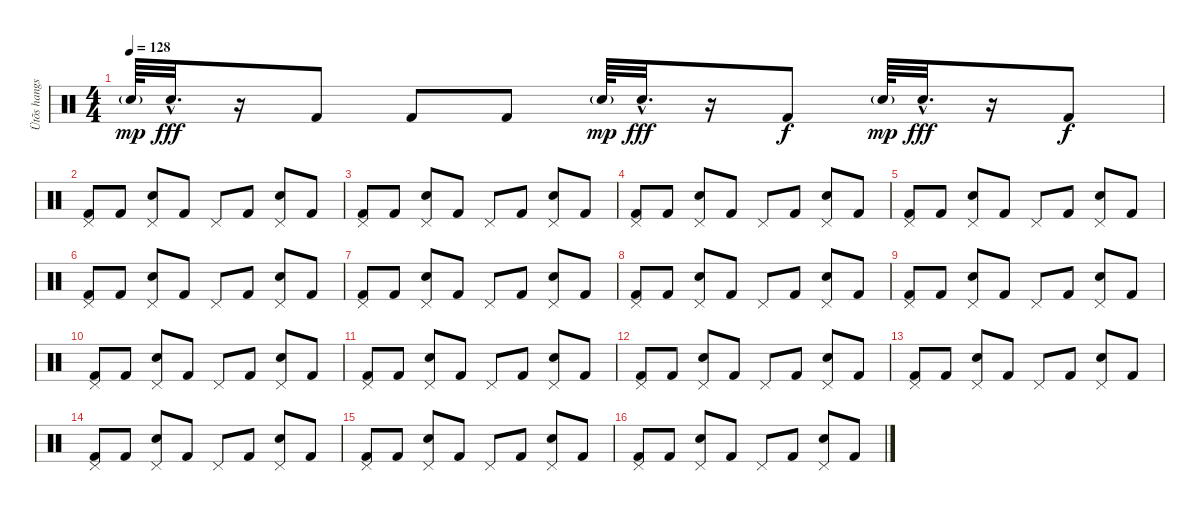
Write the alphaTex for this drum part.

\track ("Ütõs hangszer" "Ütõs hangs") {instrument percussion}
\staff {score}
\articulation defaults
\ts (4 4)
\tempo 128
\clef neutral
\ks c "Electric Snare (hit)"{g}.64{dy mp} "Electric Snare (hit)"{hac}.32{d dy fff}
r.16 "Kick (hit) 2".8 "Kick (hit) 2".8 "Kick (hit) 2".8 "Electric Snare (hit)"{g}.64{dy mp} "Electric Snare (hit)"{hac}.32{d dy fff} r.16 "Kick (hit) 2".8{dy f} "Electric Snare (hit)"{g}.64{dy mp} "Electric Snare (hit)"{hac}.32{d dy fff} r.16 "Kick (hit) 2".8{dy f} |
("Kick (hit) 2" "Pedal Hi-Hat (hit)").8 "Kick (hit) 2".8 ("Electric Snare (hit)" "Pedal Hi-Hat (hit)").8 "Kick (hit) 2".8 "Pedal Hi-Hat (hit)".8 "Kick (hit) 2".8 ("Electric Snare (hit)" "Pedal Hi-Hat (hit)").8 "Kick (hit) 2".8 |
("Kick (hit) 2" "Pedal Hi-Hat (hit)").8 "Kick (hit) 2".8 ("Electric Snare (hit)" "Pedal Hi-Hat (hit)").8 "Kick (hit) 2".8 "Pedal Hi-Hat (hit)".8 "Kick (hit) 2".8 ("Electric Snare (hit)" "Pedal Hi-Hat (hit)").8 "Kick (hit) 2".8 |
("Kick (hit) 2" "Pedal Hi-Hat (hit)").8 "Kick (hit) 2".8 ("Electric Snare (hit)" "Pedal Hi-Hat (hit)").8 "Kick (hit) 2".8 "Pedal Hi-Hat (hit)".8 "Kick (hit) 2".8 ("Electric Snare (hit)" "Pedal Hi-Hat (hit)").8 "Kick (hit) 2".8 |
("Kick (hit) 2" "Pedal Hi-Hat (hit)").8 "Kick (hit) 2".8 ("Electric Snare (hit)" "Pedal Hi-Hat (hit)").8 "Kick (hit) 2".8 "Pedal Hi-Hat (hit)".8 "Kick (hit) 2".8 ("Electric Snare (hit)" "Pedal Hi-Hat (hit)").8 "Kick (hit) 2".8 |
("Kick (hit) 2" "Pedal Hi-Hat (hit)").8 "Kick (hit) 2".8 ("Electric Snare (hit)" "Pedal Hi-Hat (hit)").8 "Kick (hit) 2".8 "Pedal Hi-Hat (hit)".8 "Kick (hit) 2".8 ("Electric Snare (hit)" "Pedal Hi-Hat (hit)").8 "Kick (hit) 2".8 |
("Kick (hit) 2" "Pedal Hi-Hat (hit)").8 "Kick (hit) 2".8 ("Electric Snare (hit)" "Pedal Hi-Hat (hit)").8 "Kick (hit) 2".8 "Pedal Hi-Hat (hit)".8 "Kick (hit) 2".8 ("Electric Snare (hit)" "Pedal Hi-Hat (hit)").8 "Kick (hit) 2".8 |
("Kick (hit) 2" "Pedal Hi-Hat (hit)").8 "Kick (hit) 2".8 ("Electric Snare (hit)" "Pedal Hi-Hat (hit)").8 "Kick (hit) 2".8 "Pedal Hi-Hat (hit)".8 "Kick (hit) 2".8 ("Electric Snare (hit)" "Pedal Hi-Hat (hit)").8 "Kick (hit) 2".8 |
("Kick (hit) 2" "Pedal Hi-Hat (hit)").8 "Kick (hit) 2".8 ("Electric Snare (hit)" "Pedal Hi-Hat (hit)").8 "Kick (hit) 2".8 "Pedal Hi-Hat (hit)".8 "Kick (hit) 2".8 ("Electric Snare (hit)" "Pedal Hi-Hat (hit)").8 "Kick (hit) 2".8 |
("Kick (hit) 2" "Pedal Hi-Hat (hit)").8 "Kick (hit) 2".8 ("Electric Snare (hit)" "Pedal Hi-Hat (hit)").8 "Kick (hit) 2".8 "Pedal Hi-Hat (hit)".8 "Kick (hit) 2".8 ("Electric Snare (hit)" "Pedal Hi-Hat (hit)").8 "Kick (hit) 2".8 |
("Kick (hit) 2" "Pedal Hi-Hat (hit)").8 "Kick (hit) 2".8 ("Electric Snare (hit)" "Pedal Hi-Hat (hit)").8 "Kick (hit) 2".8 "Pedal Hi-Hat (hit)".8 "Kick (hit) 2".8 ("Electric Snare (hit)" "Pedal Hi-Hat (hit)").8 "Kick (hit) 2".8 |
("Kick (hit) 2" "Pedal Hi-Hat (hit)").8 "Kick (hit) 2".8 ("Electric Snare (hit)" "Pedal Hi-Hat (hit)").8 "Kick (hit) 2".8 "Pedal Hi-Hat (hit)".8 "Kick (hit) 2".8 ("Electric Snare (hit)" "Pedal Hi-Hat (hit)").8 "Kick (hit) 2".8 |
("Kick (hit) 2" "Pedal Hi-Hat (hit)").8 "Kick (hit) 2".8 ("Electric Snare (hit)" "Pedal Hi-Hat (hit)").8 "Kick (hit) 2".8 "Pedal Hi-Hat (hit)".8 "Kick (hit) 2".8 ("Electric Snare (hit)" "Pedal Hi-Hat (hit)").8 "Kick (hit) 2".8 |
("Kick (hit) 2" "Pedal Hi-Hat (hit)").8 "Kick (hit) 2".8 ("Electric Snare (hit)" "Pedal Hi-Hat (hit)").8 "Kick (hit) 2".8 "Pedal Hi-Hat (hit)".8 "Kick (hit) 2".8 ("Electric Snare (hit)" "Pedal Hi-Hat (hit)").8 "Kick (hit) 2".8 |
("Kick (hit) 2" "Pedal Hi-Hat (hit)").8 "Kick (hit) 2".8 ("Electric Snare (hit)" "Pedal Hi-Hat (hit)").8 "Kick (hit) 2".8 "Pedal Hi-Hat (hit)".8 "Kick (hit) 2".8 ("Electric Snare (hit)" "Pedal Hi-Hat (hit)").8 "Kick (hit) 2".8 |
("Kick (hit) 2" "Pedal Hi-Hat (hit)").8 "Kick (hit) 2".8 ("Electric Snare (hit)" "Pedal Hi-Hat (hit)").8 "Kick (hit) 2".8 "Pedal Hi-Hat (hit)".8 "Kick (hit) 2".8 ("Electric Snare (hit)" "Pedal Hi-Hat (hit)").8 "Kick (hit) 2".8
